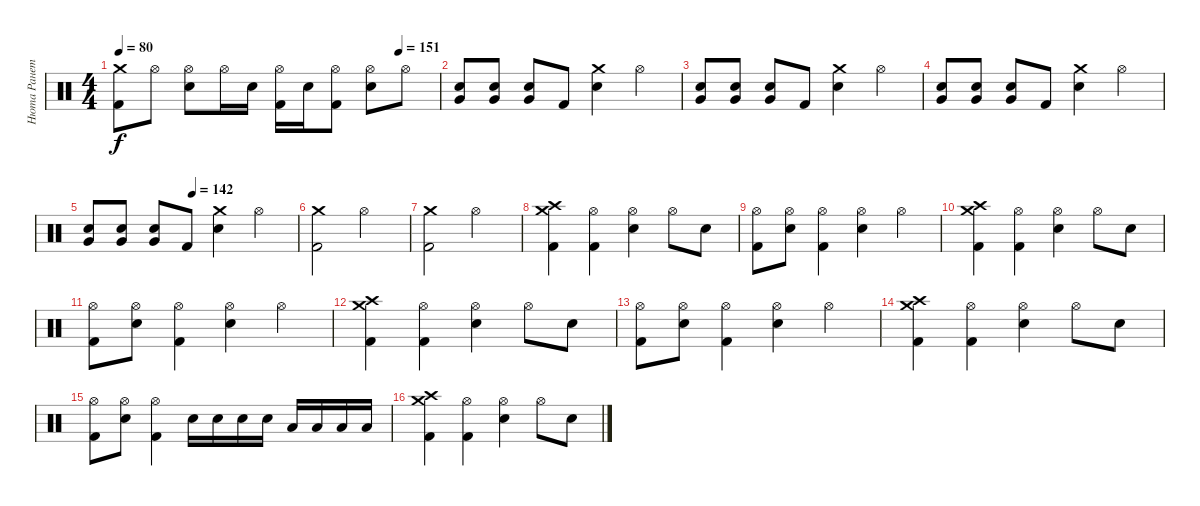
\track ("Нюта Ранетка" "Нюта Ранет") {instrument percussion}
\staff {score}
\articulation defaults
\ts (4 4)
\tempo 80
\tempo (151 0.875)
\clef neutral
\ks c
("Crash medium (hit)" "Kick (hit) 2").8{dy f} "Hi-Hat (open)".8 ("Hi-Hat (open)" "Snare (hit) 2").8 "Hi-Hat (open)".16 "Snare (hit) 2".16 ("Hi-Hat (open)" "Kick (hit) 2").16 "Snare (hit) 2".16 ("Hi-Hat (open)" "Kick (hit) 2").8 ("Hi-Hat (open)" "Snare (hit) 2").8 "Hi-Hat (open)".8 |
("Very Low Tom (hit)" "Snare (hit) 2").8 ("Very Low Tom (hit)" "Snare (hit) 2").8 ("Very Low Tom (hit)" "Snare (hit) 2").8 "Kick (hit) 2".8 ("Crash medium (hit)" "Snare (hit) 2").4 "Hi-Hat (open)".4 |
("Very Low Tom (hit)" "Snare (hit) 2").8 ("Very Low Tom (hit)" "Snare (hit) 2").8 ("Very Low Tom (hit)" "Snare (hit) 2").8 "Kick (hit) 2".8 ("Crash medium (hit)" "Snare (hit) 2").4 "Hi-Hat (open)".4 |
("Very Low Tom (hit)" "Snare (hit) 2").8 ("Very Low Tom (hit)" "Snare (hit) 2").8 ("Very Low Tom (hit)" "Snare (hit) 2").8 "Kick (hit) 2".8 ("Crash medium (hit)" "Snare (hit) 2").4 "Hi-Hat (open)".4 |
\tempo (142 0.5)
("Very Low Tom (hit)" "Snare (hit) 2").8 ("Very Low Tom (hit)" "Snare (hit) 2").8 ("Very Low Tom (hit)" "Snare (hit) 2").8 "Kick (hit) 2".8 ("Crash medium (hit)" "Snare (hit) 2").4 "Hi-Hat (open)".4 |
("Crash medium (hit)" "Kick (hit) 2").2 "Hi-Hat (open)".2 |
("Crash medium (hit)" "Kick (hit) 2").2 "Hi-Hat (open)".2 |
("Crash medium (hit)" "Crash high (hit)" "Kick (hit) 2").4 ("Hi-Hat (open)" "Kick (hit) 2").4 ("Hi-Hat (open)" "Snare (hit) 2").4 "Hi-Hat (open)".8 "Snare (hit) 2".8 |
("Hi-Hat (open)" "Kick (hit) 2").8 ("Hi-Hat (open)" "Snare (hit) 2").8 ("Hi-Hat (open)" "Kick (hit) 2").4 ("Hi-Hat (open)" "Snare (hit) 2").4 "Hi-Hat (open)".4 |
("Crash medium (hit)" "Crash high (hit)" "Kick (hit) 2").4 ("Hi-Hat (open)" "Kick (hit) 2").4 ("Hi-Hat (open)" "Snare (hit) 2").4 "Hi-Hat (open)".8 "Snare (hit) 2".8 |
("Hi-Hat (open)" "Kick (hit) 2").8 ("Hi-Hat (open)" "Snare (hit) 2").8 ("Hi-Hat (open)" "Kick (hit) 2").4 ("Hi-Hat (open)" "Snare (hit) 2").4 "Hi-Hat (open)".4 |
("Crash medium (hit)" "Crash high (hit)" "Kick (hit) 2").4 ("Hi-Hat (open)" "Kick (hit) 2").4 ("Hi-Hat (open)" "Snare (hit) 2").4 "Hi-Hat (open)".8 "Snare (hit) 2".8 |
("Hi-Hat (open)" "Kick (hit) 2").8 ("Hi-Hat (open)" "Snare (hit) 2").8 ("Hi-Hat (open)" "Kick (hit) 2").4 ("Hi-Hat (open)" "Snare (hit) 2").4 "Hi-Hat (open)".4 |
("Crash medium (hit)" "Crash high (hit)" "Kick (hit) 2").4 ("Hi-Hat (open)" "Kick (hit) 2").4 ("Hi-Hat (open)" "Snare (hit) 2").4 "Hi-Hat (open)".8 "Snare (hit) 2".8 |
("Hi-Hat (open)" "Kick (hit) 2").8 ("Hi-Hat (open)" "Snare (hit) 2").8 ("Hi-Hat (open)" "Kick (hit) 2").4 "Snare (hit) 2".16 "Snare (hit) 2".16 "Snare (hit) 2".16 "Snare (hit) 2".16 "Low Tom (hit)".16 "Low Tom (hit)".16 "Low Tom (hit)".16 "Low Tom (hit)".16 |
("Crash medium (hit)" "Crash high (hit)" "Kick (hit) 2").4 ("Hi-Hat (open)" "Kick (hit) 2").4 ("Hi-Hat (open)" "Snare (hit) 2").4 "Hi-Hat (open)".8 "Snare (hit) 2".8
